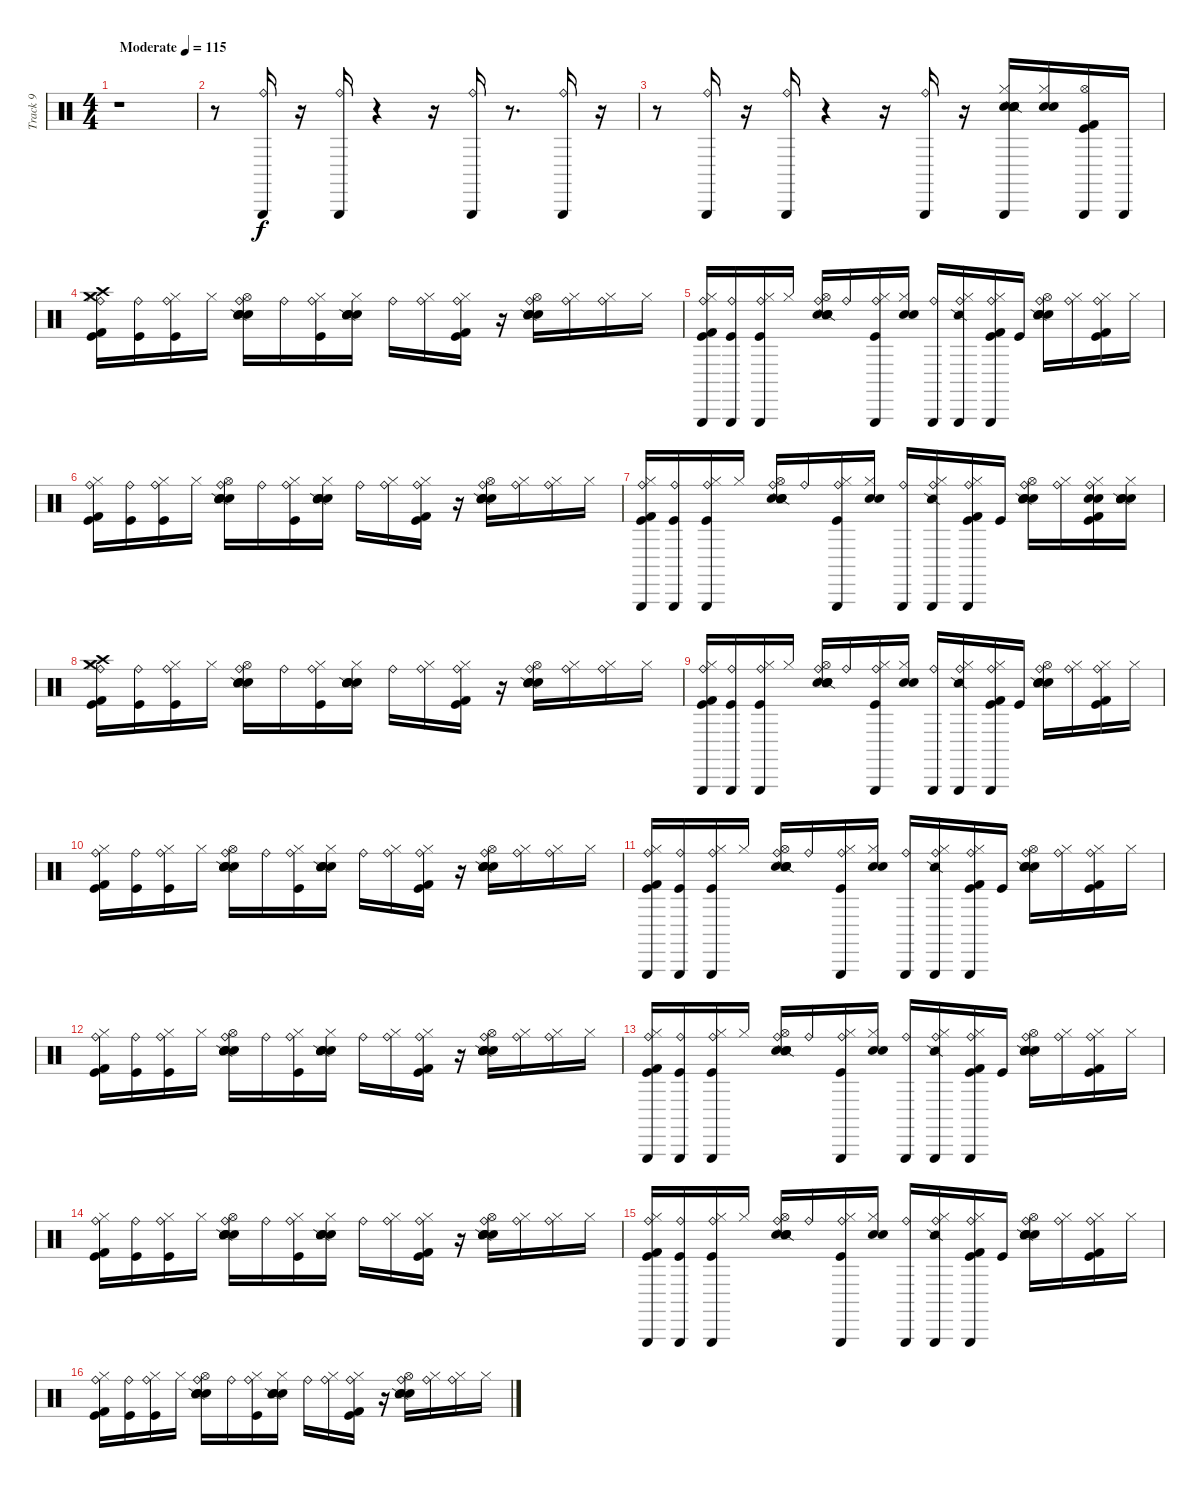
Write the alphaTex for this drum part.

\track ("Track 9" "Track 9") {instrument percussion}
\staff {score}
\articulation defaults
\ts (4 4)
\tempo (115 "Moderate")
\clef neutral
\ks c
r.1{dy f} |
r.8 ("Triangle (hit)" "Ride (bell)").16 r.16 ("Triangle (hit)" "Ride (bell)").16 r.4 r.16 ("Triangle (hit)" "Ride (bell)").16 r.8{d} ("Triangle (hit)" "Ride (bell)").16 r.16 |
r.8 ("Ride (bell)" "Triangle (hit)").16 r.16 ("Ride (bell)" "Triangle (hit)").16 r.4 r.16 ("Ride (bell)" "Triangle (hit)").16 r.16 ("Triangle (hit)" "Snare (hit) 2" "Electric Snare (hit)" "Snare (side stick) 2" "Metronome (bell)" "Hi-Hat (closed)").16 ("Electric Snare (hit)" "Snare (hit) 2" "Hi-Hat (closed)").16 ("Triangle (hit)" "Kick (hit)" "Kick (hit) 2" "Hi-Hat (open)").16 "Triangle (hit)".16 |
("Kick (hit)" "Kick (hit) 2" "Ride (bell)" "Hi-Hat (closed)" "Crash high (hit)" "Crash medium (hit)").16 ("Kick (hit)" "Ride (bell)").16 ("Kick (hit)" "Ride (bell)" "Hi-Hat (closed)").16 "Hi-Hat (closed)".16 ("Metronome (bell)" "Snare (side stick) 2" "Electric Snare (hit)" "Snare (hit) 2" "Ride (bell)" "Hi-Hat (open)").16 "Ride (bell)".16 ("Kick (hit)" "Ride (bell)" "Hi-Hat (closed)").16 ("Metronome (bell)" "Snare (side stick) 2" "Snare (hit) 2" "Electric Snare (hit)" "Hi-Hat (closed)").16 "Ride (bell)".16 ("Ride (bell)" "Hi-Hat (closed)").16 ("Kick (hit)" "Kick (hit) 2" "Ride (bell)" "Hi-Hat (closed)").16 r.16 ("Metronome (bell)" "Snare (side stick) 2" "Snare (hit) 2" "Electric Snare (hit)" "Ride (bell)" "Hi-Hat (open)").16 ("Ride (bell)" "Hi-Hat (closed)").16 ("Ride (bell)" "Hi-Hat (closed)").16 "Hi-Hat (closed)".16 |
("Kick (hit)" "Kick (hit) 2" "Ride (bell)" "Hi-Hat (closed)" "Triangle (hit)").16 ("Kick (hit)" "Ride (bell)" "Triangle (hit)").16 ("Kick (hit)" "Ride (bell)" "Hi-Hat (closed)" "Triangle (hit)").16 "Hi-Hat (closed)".16 ("Metronome (bell)" "Snare (side stick) 2" "Electric Snare (hit)" "Snare (hit) 2" "Ride (bell)" "Hi-Hat (open)").16 "Ride (bell)".16 ("Kick (hit)" "Ride (bell)" "Hi-Hat (closed)" "Triangle (hit)").16 ("Snare (hit) 2" "Hi-Hat (closed)" "Electric Snare (hit)").16 ("Ride (bell)" "Triangle (hit)").16 ("Ride (bell)" "Hi-Hat (closed)" "Snare (side stick) 2" "Triangle (hit)").16 ("Kick (hit)" "Kick (hit) 2" "Ride (bell)" "Hi-Hat (closed)" "Triangle (hit)").16 "Kick (hit)".16 ("Metronome (bell)" "Snare (side stick) 2" "Snare (hit) 2" "Electric Snare (hit)" "Ride (bell)" "Hi-Hat (open)").16 ("Ride (bell)" "Hi-Hat (closed)").16 ("Ride (bell)" "Hi-Hat (closed)" "Kick (hit)" "Kick (hit) 2").16 "Hi-Hat (closed)".16 |
("Kick (hit)" "Kick (hit) 2" "Ride (bell)" "Hi-Hat (closed)").16 ("Kick (hit)" "Ride (bell)").16 ("Kick (hit)" "Ride (bell)" "Hi-Hat (closed)").16 "Hi-Hat (closed)".16 ("Metronome (bell)" "Snare (side stick) 2" "Electric Snare (hit)" "Snare (hit) 2" "Ride (bell)" "Hi-Hat (open)").16 "Ride (bell)".16 ("Kick (hit)" "Ride (bell)" "Hi-Hat (closed)").16 ("Metronome (bell)" "Snare (side stick) 2" "Snare (hit) 2" "Electric Snare (hit)" "Hi-Hat (closed)").16 "Ride (bell)".16 ("Ride (bell)" "Hi-Hat (closed)").16 ("Kick (hit)" "Kick (hit) 2" "Ride (bell)" "Hi-Hat (closed)").16 r.16 ("Metronome (bell)" "Snare (side stick) 2" "Snare (hit) 2" "Electric Snare (hit)" "Ride (bell)" "Hi-Hat (open)").16 ("Ride (bell)" "Hi-Hat (closed)").16 ("Ride (bell)" "Hi-Hat (closed)").16 "Hi-Hat (closed)".16 |
("Kick (hit)" "Kick (hit) 2" "Ride (bell)" "Hi-Hat (closed)" "Triangle (hit)").16 ("Kick (hit)" "Ride (bell)" "Triangle (hit)").16 ("Kick (hit)" "Ride (bell)" "Hi-Hat (closed)" "Triangle (hit)").16 "Hi-Hat (closed)".16 ("Metronome (bell)" "Snare (side stick) 2" "Electric Snare (hit)" "Snare (hit) 2" "Ride (bell)" "Hi-Hat (open)").16 "Ride (bell)".16 ("Kick (hit)" "Ride (bell)" "Hi-Hat (closed)" "Triangle (hit)").16 ("Snare (hit) 2" "Hi-Hat (closed)" "Electric Snare (hit)").16 ("Ride (bell)" "Triangle (hit)").16 ("Ride (bell)" "Hi-Hat (closed)" "Snare (side stick) 2" "Triangle (hit)").16 ("Kick (hit)" "Kick (hit) 2" "Ride (bell)" "Hi-Hat (closed)" "Triangle (hit)").16 "Kick (hit)".16 ("Metronome (bell)" "Snare (side stick) 2" "Snare (hit) 2" "Electric Snare (hit)" "Ride (bell)" "Hi-Hat (open)").16 ("Ride (bell)" "Hi-Hat (closed)").16 ("Ride (bell)" "Hi-Hat (closed)" "Kick (hit)" "Kick (hit) 2" "Snare (hit) 2" "Electric Snare (hit)").16 ("Hi-Hat (closed)" "Electric Snare (hit)" "Snare (hit) 2" "Snare (side stick) 2" "Metronome (bell)").16 |
("Kick (hit)" "Kick (hit) 2" "Ride (bell)" "Hi-Hat (closed)" "Crash high (hit)" "Crash medium (hit)").16 ("Kick (hit)" "Ride (bell)").16 ("Kick (hit)" "Ride (bell)" "Hi-Hat (closed)").16 "Hi-Hat (closed)".16 ("Metronome (bell)" "Snare (side stick) 2" "Electric Snare (hit)" "Snare (hit) 2" "Ride (bell)" "Hi-Hat (open)").16 "Ride (bell)".16 ("Kick (hit)" "Ride (bell)" "Hi-Hat (closed)").16 ("Metronome (bell)" "Snare (side stick) 2" "Snare (hit) 2" "Electric Snare (hit)" "Hi-Hat (closed)").16 "Ride (bell)".16 ("Ride (bell)" "Hi-Hat (closed)").16 ("Kick (hit)" "Kick (hit) 2" "Ride (bell)" "Hi-Hat (closed)").16 r.16 ("Metronome (bell)" "Snare (side stick) 2" "Snare (hit) 2" "Electric Snare (hit)" "Ride (bell)" "Hi-Hat (open)").16 ("Ride (bell)" "Hi-Hat (closed)").16 ("Ride (bell)" "Hi-Hat (closed)").16 "Hi-Hat (closed)".16 |
("Kick (hit)" "Kick (hit) 2" "Ride (bell)" "Hi-Hat (closed)" "Triangle (hit)").16 ("Kick (hit)" "Ride (bell)" "Triangle (hit)").16 ("Kick (hit)" "Ride (bell)" "Hi-Hat (closed)" "Triangle (hit)").16 "Hi-Hat (closed)".16 ("Metronome (bell)" "Snare (side stick) 2" "Electric Snare (hit)" "Snare (hit) 2" "Ride (bell)" "Hi-Hat (open)").16 "Ride (bell)".16 ("Kick (hit)" "Ride (bell)" "Hi-Hat (closed)" "Triangle (hit)").16 ("Snare (hit) 2" "Hi-Hat (closed)" "Electric Snare (hit)").16 ("Ride (bell)" "Triangle (hit)").16 ("Ride (bell)" "Hi-Hat (closed)" "Snare (side stick) 2" "Triangle (hit)").16 ("Kick (hit)" "Kick (hit) 2" "Ride (bell)" "Hi-Hat (closed)" "Triangle (hit)").16 "Kick (hit)".16 ("Metronome (bell)" "Snare (side stick) 2" "Snare (hit) 2" "Electric Snare (hit)" "Ride (bell)" "Hi-Hat (open)").16 ("Ride (bell)" "Hi-Hat (closed)").16 ("Ride (bell)" "Hi-Hat (closed)" "Kick (hit)" "Kick (hit) 2").16 "Hi-Hat (closed)".16 |
("Kick (hit)" "Kick (hit) 2" "Ride (bell)" "Hi-Hat (closed)").16 ("Kick (hit)" "Ride (bell)").16 ("Kick (hit)" "Ride (bell)" "Hi-Hat (closed)").16 "Hi-Hat (closed)".16 ("Metronome (bell)" "Snare (side stick) 2" "Electric Snare (hit)" "Snare (hit) 2" "Ride (bell)" "Hi-Hat (open)").16 "Ride (bell)".16 ("Kick (hit)" "Ride (bell)" "Hi-Hat (closed)").16 ("Metronome (bell)" "Snare (side stick) 2" "Snare (hit) 2" "Electric Snare (hit)" "Hi-Hat (closed)").16 "Ride (bell)".16 ("Ride (bell)" "Hi-Hat (closed)").16 ("Kick (hit)" "Kick (hit) 2" "Ride (bell)" "Hi-Hat (closed)").16 r.16 ("Metronome (bell)" "Snare (side stick) 2" "Snare (hit) 2" "Electric Snare (hit)" "Ride (bell)" "Hi-Hat (open)").16 ("Ride (bell)" "Hi-Hat (closed)").16 ("Ride (bell)" "Hi-Hat (closed)").16 "Hi-Hat (closed)".16 |
("Kick (hit)" "Kick (hit) 2" "Ride (bell)" "Hi-Hat (closed)" "Triangle (hit)").16 ("Kick (hit)" "Ride (bell)" "Triangle (hit)").16 ("Kick (hit)" "Ride (bell)" "Hi-Hat (closed)" "Triangle (hit)").16 "Hi-Hat (closed)".16 ("Metronome (bell)" "Snare (side stick) 2" "Electric Snare (hit)" "Snare (hit) 2" "Ride (bell)" "Hi-Hat (open)").16 "Ride (bell)".16 ("Kick (hit)" "Ride (bell)" "Hi-Hat (closed)" "Triangle (hit)").16 ("Snare (hit) 2" "Hi-Hat (closed)" "Electric Snare (hit)").16 ("Ride (bell)" "Triangle (hit)").16 ("Ride (bell)" "Hi-Hat (closed)" "Snare (side stick) 2" "Triangle (hit)").16 ("Kick (hit)" "Kick (hit) 2" "Ride (bell)" "Hi-Hat (closed)" "Triangle (hit)").16 "Kick (hit)".16 ("Metronome (bell)" "Snare (side stick) 2" "Snare (hit) 2" "Electric Snare (hit)" "Ride (bell)" "Hi-Hat (open)").16 ("Ride (bell)" "Hi-Hat (closed)").16 ("Ride (bell)" "Hi-Hat (closed)" "Kick (hit)" "Kick (hit) 2").16 "Hi-Hat (closed)".16 |
("Kick (hit)" "Kick (hit) 2" "Ride (bell)" "Hi-Hat (closed)").16 ("Kick (hit)" "Ride (bell)").16 ("Kick (hit)" "Ride (bell)" "Hi-Hat (closed)").16 "Hi-Hat (closed)".16 ("Metronome (bell)" "Snare (side stick) 2" "Electric Snare (hit)" "Snare (hit) 2" "Ride (bell)" "Hi-Hat (open)").16 "Ride (bell)".16 ("Kick (hit)" "Ride (bell)" "Hi-Hat (closed)").16 ("Metronome (bell)" "Snare (side stick) 2" "Snare (hit) 2" "Electric Snare (hit)" "Hi-Hat (closed)").16 "Ride (bell)".16 ("Ride (bell)" "Hi-Hat (closed)").16 ("Kick (hit)" "Kick (hit) 2" "Ride (bell)" "Hi-Hat (closed)").16 r.16 ("Metronome (bell)" "Snare (side stick) 2" "Snare (hit) 2" "Electric Snare (hit)" "Ride (bell)" "Hi-Hat (open)").16 ("Ride (bell)" "Hi-Hat (closed)").16 ("Ride (bell)" "Hi-Hat (closed)").16 "Hi-Hat (closed)".16 |
("Kick (hit)" "Kick (hit) 2" "Ride (bell)" "Hi-Hat (closed)" "Triangle (hit)").16 ("Kick (hit)" "Ride (bell)" "Triangle (hit)").16 ("Kick (hit)" "Ride (bell)" "Hi-Hat (closed)" "Triangle (hit)").16 "Hi-Hat (closed)".16 ("Metronome (bell)" "Snare (side stick) 2" "Electric Snare (hit)" "Snare (hit) 2" "Ride (bell)" "Hi-Hat (open)").16 "Ride (bell)".16 ("Kick (hit)" "Ride (bell)" "Hi-Hat (closed)" "Triangle (hit)").16 ("Snare (hit) 2" "Hi-Hat (closed)" "Electric Snare (hit)").16 ("Ride (bell)" "Triangle (hit)").16 ("Ride (bell)" "Hi-Hat (closed)" "Snare (side stick) 2" "Triangle (hit)").16 ("Kick (hit)" "Kick (hit) 2" "Ride (bell)" "Hi-Hat (closed)" "Triangle (hit)").16 "Kick (hit)".16 ("Metronome (bell)" "Snare (side stick) 2" "Snare (hit) 2" "Electric Snare (hit)" "Ride (bell)" "Hi-Hat (open)").16 ("Ride (bell)" "Hi-Hat (closed)").16 ("Ride (bell)" "Hi-Hat (closed)" "Kick (hit)" "Kick (hit) 2").16 "Hi-Hat (closed)".16 |
("Kick (hit)" "Kick (hit) 2" "Ride (bell)" "Hi-Hat (closed)").16 ("Kick (hit)" "Ride (bell)").16 ("Kick (hit)" "Ride (bell)" "Hi-Hat (closed)").16 "Hi-Hat (closed)".16 ("Metronome (bell)" "Snare (side stick) 2" "Electric Snare (hit)" "Snare (hit) 2" "Ride (bell)" "Hi-Hat (open)").16 "Ride (bell)".16 ("Kick (hit)" "Ride (bell)" "Hi-Hat (closed)").16 ("Metronome (bell)" "Snare (side stick) 2" "Snare (hit) 2" "Electric Snare (hit)" "Hi-Hat (closed)").16 "Ride (bell)".16 ("Ride (bell)" "Hi-Hat (closed)").16 ("Kick (hit)" "Kick (hit) 2" "Ride (bell)" "Hi-Hat (closed)").16 r.16 ("Metronome (bell)" "Snare (side stick) 2" "Snare (hit) 2" "Electric Snare (hit)" "Ride (bell)" "Hi-Hat (open)").16 ("Ride (bell)" "Hi-Hat (closed)").16 ("Ride (bell)" "Hi-Hat (closed)").16 "Hi-Hat (closed)".16 |
("Kick (hit)" "Kick (hit) 2" "Ride (bell)" "Hi-Hat (closed)" "Triangle (hit)").16 ("Kick (hit)" "Ride (bell)" "Triangle (hit)").16 ("Kick (hit)" "Ride (bell)" "Hi-Hat (closed)" "Triangle (hit)").16 "Hi-Hat (closed)".16 ("Metronome (bell)" "Snare (side stick) 2" "Electric Snare (hit)" "Snare (hit) 2" "Ride (bell)" "Hi-Hat (open)").16 "Ride (bell)".16 ("Kick (hit)" "Ride (bell)" "Hi-Hat (closed)" "Triangle (hit)").16 ("Snare (hit) 2" "Hi-Hat (closed)" "Electric Snare (hit)").16 ("Ride (bell)" "Triangle (hit)").16 ("Ride (bell)" "Hi-Hat (closed)" "Snare (side stick) 2" "Triangle (hit)").16 ("Kick (hit)" "Kick (hit) 2" "Ride (bell)" "Hi-Hat (closed)" "Triangle (hit)").16 "Kick (hit)".16 ("Metronome (bell)" "Snare (side stick) 2" "Snare (hit) 2" "Electric Snare (hit)" "Ride (bell)" "Hi-Hat (open)").16 ("Ride (bell)" "Hi-Hat (closed)").16 ("Ride (bell)" "Hi-Hat (closed)" "Kick (hit)" "Kick (hit) 2").16 "Hi-Hat (closed)".16 |
("Kick (hit)" "Kick (hit) 2" "Ride (bell)" "Hi-Hat (closed)").16 ("Kick (hit)" "Ride (bell)").16 ("Kick (hit)" "Ride (bell)" "Hi-Hat (closed)").16 "Hi-Hat (closed)".16 ("Metronome (bell)" "Snare (side stick) 2" "Electric Snare (hit)" "Snare (hit) 2" "Ride (bell)" "Hi-Hat (open)").16 "Ride (bell)".16 ("Kick (hit)" "Ride (bell)" "Hi-Hat (closed)").16 ("Metronome (bell)" "Snare (side stick) 2" "Snare (hit) 2" "Electric Snare (hit)" "Hi-Hat (closed)").16 "Ride (bell)".16 ("Ride (bell)" "Hi-Hat (closed)").16 ("Kick (hit)" "Kick (hit) 2" "Ride (bell)" "Hi-Hat (closed)").16 r.16 ("Metronome (bell)" "Snare (side stick) 2" "Snare (hit) 2" "Electric Snare (hit)" "Ride (bell)" "Hi-Hat (open)").16 ("Ride (bell)" "Hi-Hat (closed)").16 ("Ride (bell)" "Hi-Hat (closed)").16 "Hi-Hat (closed)".16
